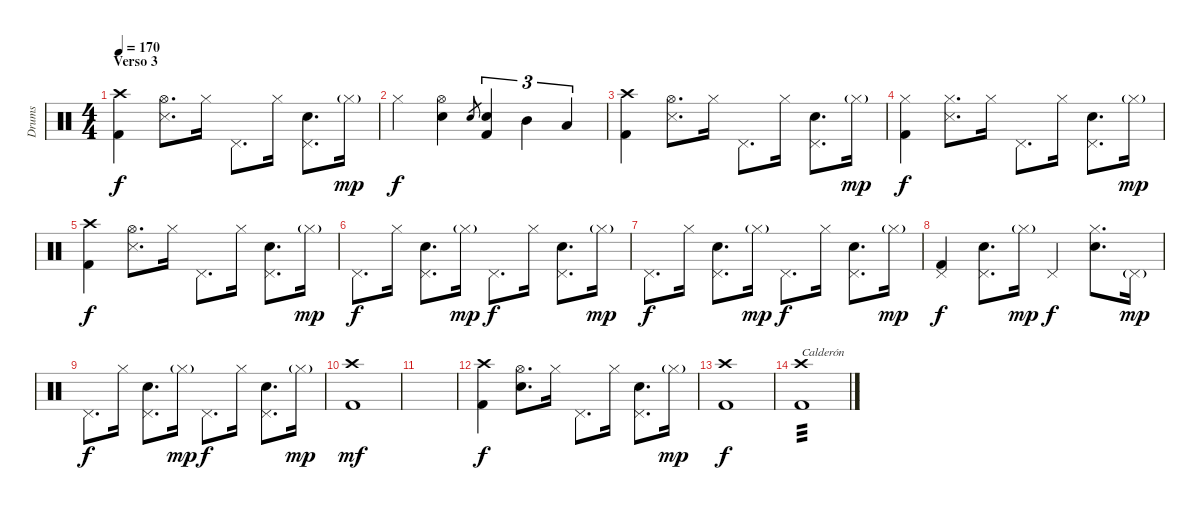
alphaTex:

\track ("Drums" "Drums") {instrument percussion}
\staff {score}
\articulation defaults
\ts (4 4)
\section ("" "Verso 3")
\tempo 170
\clef neutral
\ks c
("Crash high (hit)" "Kick (hit) 2").4{dy f} ("Hi-Hat (open)" "Snare (side stick) 3").8{d} "Hi-Hat (closed)".16 "Pedal Hi-Hat (hit)".8{d} "Hi-Hat (closed)".16 ("Pedal Hi-Hat (hit)" "Snare (hit) 2").8{d} "Hi-Hat (closed)"{g}.16{dy mp} |
"Hi-Hat (closed)".4{dy f} ("Hi-Hat (open)" "Snare (hit) 2").4 "Snare (hit) 2".8{gr} ("Snare (hit) 2" "Kick (hit) 2").4{tu (3 2)} "Mid Tom (hit)".4{tu (3 2)} "Low Tom (hit)".4{tu (3 2)} |
("Crash high (hit)" "Kick (hit) 2").4 ("Hi-Hat (open)" "Snare (side stick) 3").8{d} "Hi-Hat (closed)".16 "Pedal Hi-Hat (hit)".8{d} "Hi-Hat (closed)".16 ("Pedal Hi-Hat (hit)" "Snare (hit) 2").8{d} "Hi-Hat (closed)"{g}.16{dy mp} |
("Hi-Hat (closed)" "Kick (hit) 2").4{dy f} ("Hi-Hat (closed)" "Snare (side stick) 3").8{d} "Hi-Hat (closed)".16 "Pedal Hi-Hat (hit)".8{d} "Hi-Hat (closed)".16 ("Pedal Hi-Hat (hit)" "Snare (hit) 2").8{d} "Hi-Hat (closed)"{g}.16{dy mp} |
("Crash high (hit)" "Kick (hit) 2").4{dy f} ("Hi-Hat (open)" "Snare (side stick) 3").8{d} "Hi-Hat (closed)".16 "Pedal Hi-Hat (hit)".8{d} "Hi-Hat (closed)".16 ("Pedal Hi-Hat (hit)" "Snare (hit) 2").8{d} "Hi-Hat (closed)"{g}.16{dy mp} |
"Pedal Hi-Hat (hit)".8{d dy f} "Hi-Hat (closed)".16 ("Pedal Hi-Hat (hit)" "Snare (hit) 2").8{d} "Hi-Hat (closed)"{g}.16{dy mp} "Pedal Hi-Hat (hit)".8{d dy f} "Hi-Hat (closed)".16 ("Pedal Hi-Hat (hit)" "Snare (hit) 2").8{d} "Hi-Hat (closed)"{g}.16{dy mp} |
"Pedal Hi-Hat (hit)".8{d dy f} "Hi-Hat (closed)".16 ("Pedal Hi-Hat (hit)" "Snare (hit) 2").8{d} "Hi-Hat (closed)"{g}.16{dy mp} "Pedal Hi-Hat (hit)".8{d dy f} "Hi-Hat (closed)".16 ("Pedal Hi-Hat (hit)" "Snare (hit) 2").8{d} "Hi-Hat (closed)"{g}.16{dy mp} |
("Pedal Hi-Hat (hit)" "Kick (hit) 2").4{dy f} ("Pedal Hi-Hat (hit)" "Snare (hit) 2").8{d} "Hi-Hat (closed)"{g}.16{dy mp} "Pedal Hi-Hat (hit)".4{dy f} ("Hi-Hat (closed)" "Snare (hit) 2").8{d} "Pedal Hi-Hat (hit)"{g}.16{dy mp} |
"Pedal Hi-Hat (hit)".8{d dy f} "Hi-Hat (closed)".16 ("Pedal Hi-Hat (hit)" "Snare (hit) 2").8{d} "Hi-Hat (closed)"{g}.16{dy mp} "Pedal Hi-Hat (hit)".8{d dy f} "Hi-Hat (closed)".16 ("Pedal Hi-Hat (hit)" "Snare (hit) 2").8{d} "Hi-Hat (closed)"{g}.16{dy mp} |
("Crash high (hit)" "Kick (hit) 2").1{dy mf} |
|
("Crash high (hit)" "Kick (hit) 2").4{dy f} ("Hi-Hat (open)" "Snare (hit) 2").8{d} "Hi-Hat (closed)".16 "Pedal Hi-Hat (hit)".8{d} "Hi-Hat (closed)".16 ("Pedal Hi-Hat (hit)" "Snare (hit) 2").8{d} "Hi-Hat (closed)"{g}.16{dy mp} |
("Crash high (hit)" "Kick (hit) 2").1{dy f} |
("Crash high (hit)" "Kick (hit) 2").1{txt "Calderón" tp 3}
